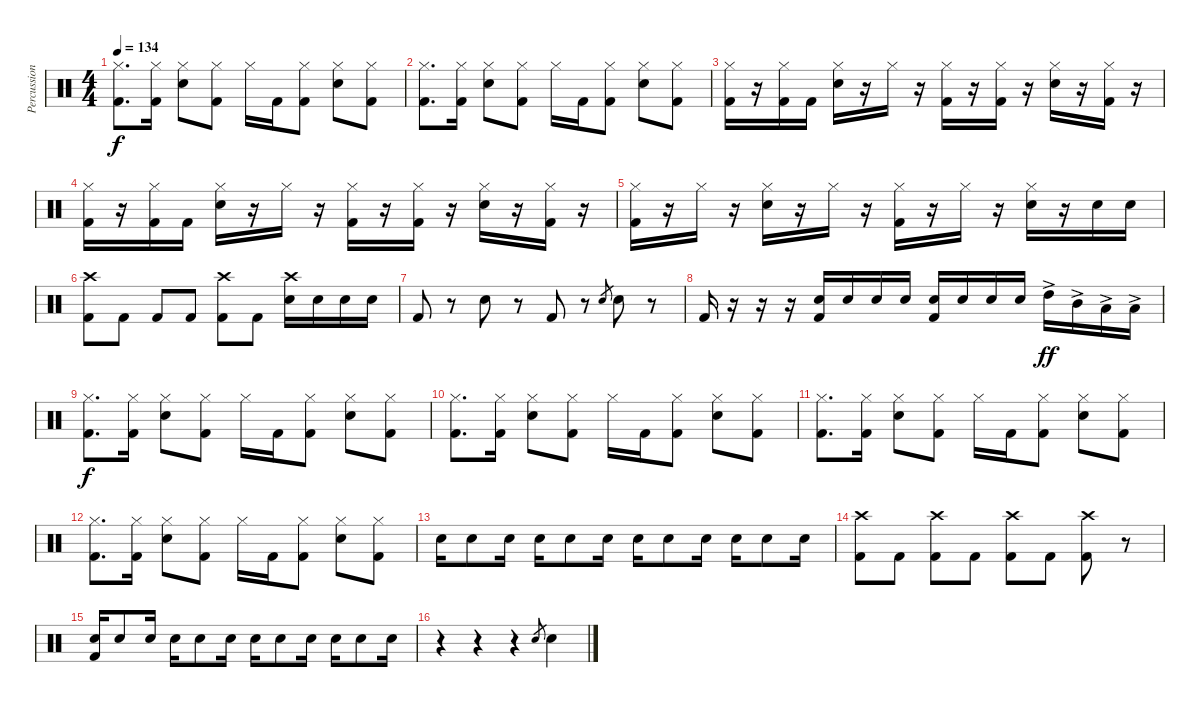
\track ("Percussion" "Percussion") {instrument percussion}
\staff {score}
\articulation defaults
\ts (4 4)
\tempo 134
\clef neutral
\ks c
("Hi-Hat (closed)" "Kick (hit) 2").8{d dy f} ("Hi-Hat (closed)" "Kick (hit) 2").16 ("Hi-Hat (closed)" "Snare (hit) 2").8 ("Hi-Hat (closed)" "Kick (hit) 2").8 "Hi-Hat (closed)".16 "Kick (hit) 2".16 ("Hi-Hat (closed)" "Kick (hit) 2").8 ("Hi-Hat (closed)" "Snare (hit) 2").8 ("Hi-Hat (closed)" "Kick (hit) 2").8 |
("Hi-Hat (closed)" "Kick (hit) 2").8{d} ("Hi-Hat (closed)" "Kick (hit) 2").16 ("Hi-Hat (closed)" "Snare (hit) 2").8 ("Hi-Hat (closed)" "Kick (hit) 2").8 "Hi-Hat (closed)".16 "Kick (hit) 2".16 ("Hi-Hat (closed)" "Kick (hit) 2").8 ("Hi-Hat (closed)" "Snare (hit) 2").8 ("Hi-Hat (closed)" "Kick (hit) 2").8 |
("Hi-Hat (closed)" "Kick (hit) 2").16 r.16 ("Hi-Hat (closed)" "Kick (hit) 2").16 "Kick (hit) 2".16 ("Hi-Hat (closed)" "Snare (hit) 2").16 r.16 "Hi-Hat (closed)".16 r.16 ("Hi-Hat (closed)" "Kick (hit) 2").16 r.16 ("Hi-Hat (closed)" "Kick (hit) 2").16 r.16 ("Hi-Hat (closed)" "Snare (hit) 2").16 r.16 ("Hi-Hat (closed)" "Kick (hit) 2").16 r.16 |
("Hi-Hat (closed)" "Kick (hit) 2").16 r.16 ("Hi-Hat (closed)" "Kick (hit) 2").16 "Kick (hit) 2".16 ("Hi-Hat (closed)" "Snare (hit) 2").16 r.16 "Hi-Hat (closed)".16 r.16 ("Hi-Hat (closed)" "Kick (hit) 2").16 r.16 ("Hi-Hat (closed)" "Kick (hit) 2").16 r.16 ("Hi-Hat (closed)" "Snare (hit) 2").16 r.16 ("Hi-Hat (closed)" "Kick (hit) 2").16 r.16 |
("Hi-Hat (closed)" "Kick (hit) 2").16 r.16 "Hi-Hat (closed)".16 r.16 ("Hi-Hat (closed)" "Snare (hit) 2").16 r.16 "Hi-Hat (closed)".16 r.16 ("Hi-Hat (closed)" "Kick (hit) 2").16 r.16 "Hi-Hat (closed)".16 r.16 ("Hi-Hat (closed)" "Snare (hit) 2").16 r.16 "Snare (hit) 2".16 "Snare (hit) 2".16 |
("Crash high (hit)" "Kick (hit) 2").8 "Kick (hit) 2".8 "Kick (hit) 2".8 "Kick (hit) 2".8 ("Crash high (hit)" "Kick (hit) 2").8 "Kick (hit) 2".8 ("Crash high (hit)" "Snare (hit) 2").16 "Snare (hit) 2".16 "Snare (hit) 2".16 "Snare (hit) 2".16 |
"Kick (hit) 2".8 r.8 "Snare (hit) 2".8 r.8 "Kick (hit) 2".8 r.8 "Snare (hit) 2".8{gr} "Snare (hit) 2".8 r.8 |
"Kick (hit) 2".16 r.16 r.16 r.16 ("Snare (hit) 2" "Kick (hit) 2").16 "Snare (hit) 2".16 "Snare (hit) 2".16 "Snare (hit) 2".16 ("Snare (hit) 2" "Kick (hit) 2").16 "Snare (hit) 2".16 "Snare (hit) 2".16 "Snare (hit) 2".16 "High Tom (hit)"{ac}.16{dy ff balance 0} "Mid Tom (hit)"{ac}.16{balance 4} "Low Tom (hit)"{ac}.16{balance 12} "Low Tom (hit)"{ac}.16{balance 16} |
("Hi-Hat (closed)" "Kick (hit) 2").8{d dy f balance 8} ("Hi-Hat (closed)" "Kick (hit) 2").16 ("Hi-Hat (closed)" "Snare (hit) 2").8 ("Hi-Hat (closed)" "Kick (hit) 2").8 "Hi-Hat (closed)".16 "Kick (hit) 2".16 ("Hi-Hat (closed)" "Kick (hit) 2").8 ("Hi-Hat (closed)" "Snare (hit) 2").8 ("Hi-Hat (closed)" "Kick (hit) 2").8 |
("Hi-Hat (closed)" "Kick (hit) 2").8{d} ("Hi-Hat (closed)" "Kick (hit) 2").16 ("Hi-Hat (closed)" "Snare (hit) 2").8 ("Hi-Hat (closed)" "Kick (hit) 2").8 "Hi-Hat (closed)".16 "Kick (hit) 2".16 ("Hi-Hat (closed)" "Kick (hit) 2").8 ("Hi-Hat (closed)" "Snare (hit) 2").8 ("Hi-Hat (closed)" "Kick (hit) 2").8 |
("Hi-Hat (closed)" "Kick (hit) 2").8{d} ("Hi-Hat (closed)" "Kick (hit) 2").16 ("Hi-Hat (closed)" "Snare (hit) 2").8 ("Hi-Hat (closed)" "Kick (hit) 2").8 "Hi-Hat (closed)".16 "Kick (hit) 2".16 ("Hi-Hat (closed)" "Kick (hit) 2").8 ("Hi-Hat (closed)" "Snare (hit) 2").8 ("Hi-Hat (closed)" "Kick (hit) 2").8 |
("Hi-Hat (closed)" "Kick (hit) 2").8{d} ("Hi-Hat (closed)" "Kick (hit) 2").16 ("Hi-Hat (closed)" "Snare (hit) 2").8 ("Hi-Hat (closed)" "Kick (hit) 2").8 "Hi-Hat (closed)".16 "Kick (hit) 2".16 ("Hi-Hat (closed)" "Kick (hit) 2").8 ("Hi-Hat (closed)" "Snare (hit) 2").8 ("Hi-Hat (closed)" "Kick (hit) 2").8 |
"Snare (hit) 2".16 "Snare (hit) 2".8 "Snare (hit) 2".16 "Snare (hit) 2".16 "Snare (hit) 2".8 "Snare (hit) 2".16 "Snare (hit) 2".16 "Snare (hit) 2".8 "Snare (hit) 2".16 "Snare (hit) 2".16 "Snare (hit) 2".8 "Snare (hit) 2".16 |
("Crash high (hit)" "Kick (hit) 2").8 "Kick (hit) 2".8 ("Crash high (hit)" "Kick (hit) 2").8 "Kick (hit) 2".8 ("Crash high (hit)" "Kick (hit) 2").8 "Kick (hit) 2".8 ("Crash high (hit)" "Kick (hit) 2").8 r.8 |
("Snare (hit) 2" "Kick (hit) 2").16 "Snare (hit) 2".8 "Snare (hit) 2".16 "Snare (hit) 2".16 "Snare (hit) 2".8 "Snare (hit) 2".16 "Snare (hit) 2".16 "Snare (hit) 2".8 "Snare (hit) 2".16 "Snare (hit) 2".16 "Snare (hit) 2".8 "Snare (hit) 2".16 |
r.4 r.4 r.4 "Snare (hit) 2".8{gr} "Snare (hit) 2".4
